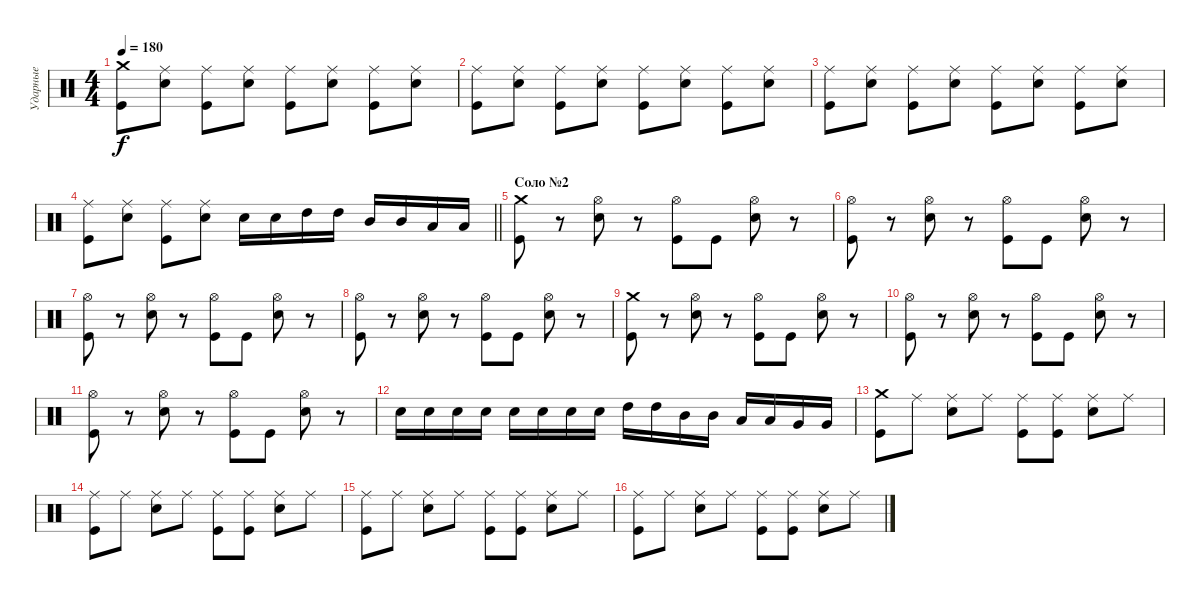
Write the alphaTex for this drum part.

\track ("Ударные" "Ударные") {instrument percussion}
\staff {score}
\articulation defaults
\ts (4 4)
\tempo 180
\clef neutral
\ks c
("Crash medium (hit)" "Kick (hit)").8{dy f} ("Ride (middle)" "Electric Snare (hit)").8 ("Ride (middle)" "Kick (hit)").8 ("Ride (middle)" "Electric Snare (hit)").8 ("Ride (middle)" "Kick (hit)").8 ("Ride (middle)" "Electric Snare (hit)").8 ("Ride (middle)" "Kick (hit)").8 ("Ride (middle)" "Electric Snare (hit)").8 |
("Ride (middle)" "Kick (hit)").8 ("Ride (middle)" "Electric Snare (hit)").8 ("Ride (middle)" "Kick (hit)").8 ("Ride (middle)" "Electric Snare (hit)").8 ("Ride (middle)" "Kick (hit)").8 ("Ride (middle)" "Electric Snare (hit)").8 ("Ride (middle)" "Kick (hit)").8 ("Ride (middle)" "Electric Snare (hit)").8 |
("Ride (middle)" "Kick (hit)").8 ("Ride (middle)" "Electric Snare (hit)").8 ("Ride (middle)" "Kick (hit)").8 ("Ride (middle)" "Electric Snare (hit)").8 ("Ride (middle)" "Kick (hit)").8 ("Ride (middle)" "Electric Snare (hit)").8 ("Ride (middle)" "Kick (hit)").8 ("Ride (middle)" "Electric Snare (hit)").8 |
\barLineRight lightlight
("Ride (middle)" "Kick (hit)").8 ("Ride (middle)" "Electric Snare (hit)").8 ("Ride (middle)" "Kick (hit)").8 ("Ride (middle)" "Electric Snare (hit)").8 "Electric Snare (hit)".16 "Electric Snare (hit)".16 "High Tom (hit)".16 "High Tom (hit)".16 "Mid Tom (hit)".16 "Mid Tom (hit)".16 "Low Tom (hit)".16 "Low Tom (hit)".16 |
\section ("" "Соло №2")
("Crash medium (hit)" "Kick (hit)").8 r.8 ("Hi-Hat (open)" "Electric Snare (hit)").8 r.8 ("Hi-Hat (open)" "Kick (hit)").8 "Kick (hit)".8 ("Hi-Hat (open)" "Electric Snare (hit)").8 r.8 |
("Hi-Hat (open)" "Kick (hit)").8 r.8 ("Hi-Hat (open)" "Electric Snare (hit)").8 r.8 ("Hi-Hat (open)" "Kick (hit)").8 "Kick (hit)".8 ("Hi-Hat (open)" "Electric Snare (hit)").8 r.8 |
("Hi-Hat (open)" "Kick (hit)").8 r.8 ("Hi-Hat (open)" "Electric Snare (hit)").8 r.8 ("Hi-Hat (open)" "Kick (hit)").8 "Kick (hit)".8 ("Hi-Hat (open)" "Electric Snare (hit)").8 r.8 |
("Hi-Hat (open)" "Kick (hit)").8 r.8 ("Hi-Hat (open)" "Electric Snare (hit)").8 r.8 ("Hi-Hat (open)" "Kick (hit)").8 "Kick (hit)".8 ("Hi-Hat (open)" "Electric Snare (hit)").8 r.8 |
("Crash medium (hit)" "Kick (hit)").8 r.8 ("Hi-Hat (open)" "Electric Snare (hit)").8 r.8 ("Hi-Hat (open)" "Kick (hit)").8 "Kick (hit)".8 ("Hi-Hat (open)" "Electric Snare (hit)").8 r.8 |
("Hi-Hat (open)" "Kick (hit)").8 r.8 ("Hi-Hat (open)" "Electric Snare (hit)").8 r.8 ("Hi-Hat (open)" "Kick (hit)").8 "Kick (hit)".8 ("Hi-Hat (open)" "Electric Snare (hit)").8 r.8 |
("Hi-Hat (open)" "Kick (hit)").8 r.8 ("Hi-Hat (open)" "Electric Snare (hit)").8 r.8 ("Hi-Hat (open)" "Kick (hit)").8 "Kick (hit)".8 ("Hi-Hat (open)" "Electric Snare (hit)").8 r.8 |
"Electric Snare (hit)".16 "Electric Snare (hit)".16 "Electric Snare (hit)".16 "Electric Snare (hit)".16 "Electric Snare (hit)".16 "Electric Snare (hit)".16 "Electric Snare (hit)".16 "Electric Snare (hit)".16 "High Tom (hit)".16 "High Tom (hit)".16 "Mid Tom (hit)".16 "Mid Tom (hit)".16 "Low Tom (hit)".16 "Low Tom (hit)".16 "Very Low Tom (hit)".16 "Very Low Tom (hit)".16 |
("Crash medium (hit)" "Kick (hit)").8 "Ride (middle)".8 ("Ride (middle)" "Electric Snare (hit)").8 "Ride (middle)".8 ("Ride (middle)" "Kick (hit)").8 ("Ride (middle)" "Kick (hit)").8 ("Ride (middle)" "Electric Snare (hit)").8 "Ride (middle)".8 |
("Ride (middle)" "Kick (hit)").8 "Ride (middle)".8 ("Ride (middle)" "Electric Snare (hit)").8 "Ride (middle)".8 ("Ride (middle)" "Kick (hit)").8 ("Ride (middle)" "Kick (hit)").8 ("Ride (middle)" "Electric Snare (hit)").8 "Ride (middle)".8 |
("Ride (middle)" "Kick (hit)").8 "Ride (middle)".8 ("Ride (middle)" "Electric Snare (hit)").8 "Ride (middle)".8 ("Ride (middle)" "Kick (hit)").8 ("Ride (middle)" "Kick (hit)").8 ("Ride (middle)" "Electric Snare (hit)").8 "Ride (middle)".8 |
("Ride (middle)" "Kick (hit)").8 "Ride (middle)".8 ("Ride (middle)" "Electric Snare (hit)").8 "Ride (middle)".8 ("Ride (middle)" "Kick (hit)").8 ("Ride (middle)" "Kick (hit)").8 ("Ride (middle)" "Electric Snare (hit)").8 "Ride (middle)".8
